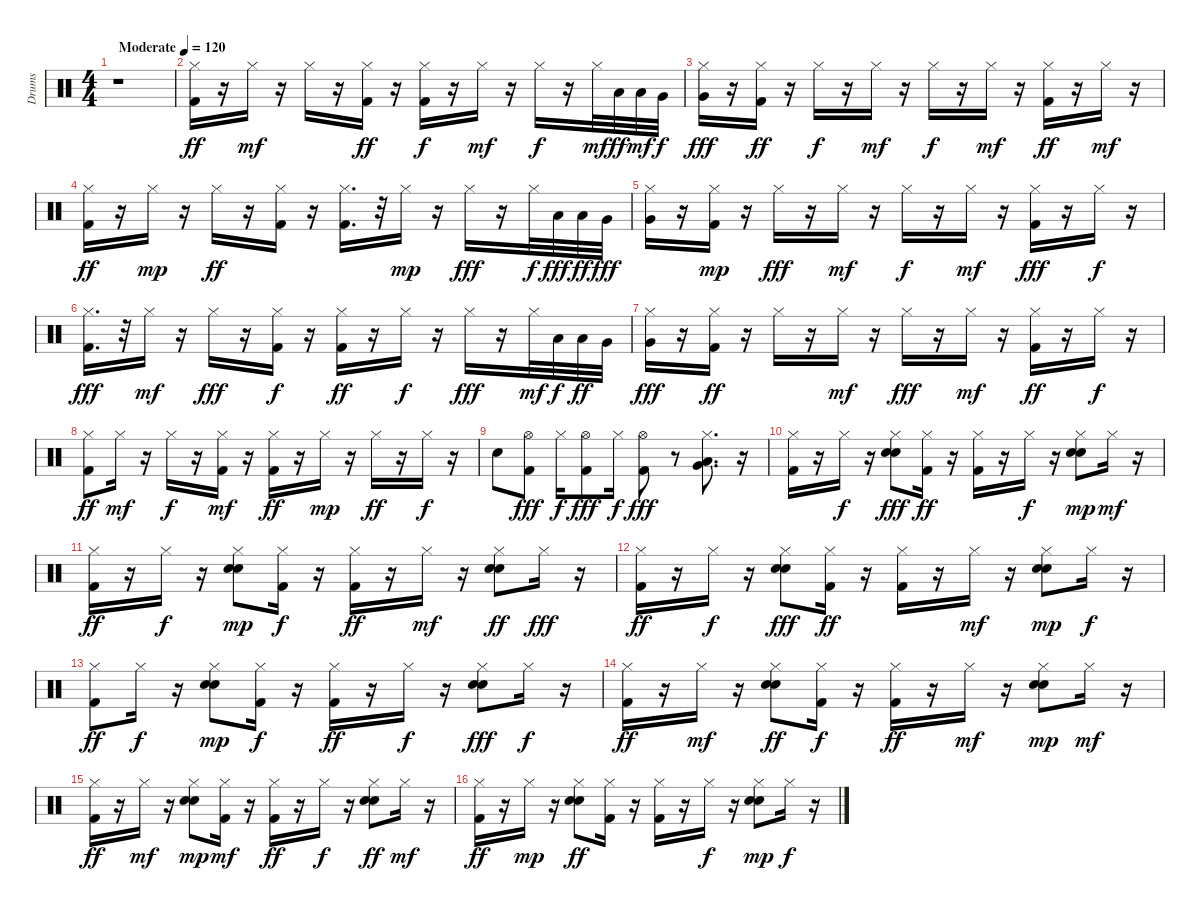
\track ("Drums" "Drums") {instrument percussion}
\staff {score}
\articulation defaults
\ts (4 4)
\tempo (120 "Moderate")
\clef neutral
\ks c
r.1{dy ff} |
("Kick (hit) 2" "Hi-Hat (closed)").16 r.16 "Hi-Hat (closed)".16{dy mf} r.16 "Hi-Hat (closed)".16 r.16 ("Hi-Hat (closed)" "Kick (hit) 2").16{dy ff} r.16 ("Kick (hit) 2" "Hi-Hat (closed)").16{dy f} r.16 "Hi-Hat (closed)".16{dy mf} r.16 "Hi-Hat (closed)".16{dy f} r.16 "Hi-Hat (closed)".32{dy mf} "Low Tom (hit)".32{dy ff} "Low Tom (hit)".32{dy mf} "Very Low Tom (hit)".32{dy f} |
("Very Low Tom (hit)" "Hi-Hat (closed)").16{dy fff} r.16 ("Kick (hit) 2" "Hi-Hat (closed)").16{dy ff} r.16 "Hi-Hat (closed)".16{dy f} r.16 "Hi-Hat (closed)".16{dy mf} r.16 "Hi-Hat (closed)".16{dy f} r.16 "Hi-Hat (closed)".16{dy mf} r.16 ("Kick (hit) 2" "Hi-Hat (closed)").16{dy ff} r.16 "Hi-Hat (closed)".16{dy mf} r.16 |
("Hi-Hat (closed)" "Kick (hit) 2").16{dy ff} r.16 "Hi-Hat (closed)".16{dy mp} r.16 "Hi-Hat (closed)".16{dy ff} r.16 ("Hi-Hat (closed)" "Kick (hit) 2").16 r.16 ("Hi-Hat (closed)" "Kick (hit) 2").16{d} r.32 "Hi-Hat (closed)".16{dy mp} r.16 "Hi-Hat (closed)".16{dy fff} r.16 "Hi-Hat (closed)".32{dy f} "Low Tom (hit)".32{dy fff} "Low Tom (hit)".32{dy ff} "Very Low Tom (hit)".32{dy fff} |
("Very Low Tom (hit)" "Hi-Hat (closed)").16 r.16 ("Kick (hit) 2" "Hi-Hat (closed)").16{dy mp} r.16 "Hi-Hat (closed)".16{dy fff} r.16 "Hi-Hat (closed)".16{dy mf} r.16 "Hi-Hat (closed)".16{dy f} r.16 "Hi-Hat (closed)".16{dy mf} r.16 ("Kick (hit) 2" "Hi-Hat (closed)").16{dy fff} r.16 "Hi-Hat (closed)".16{dy f} r.16 |
("Kick (hit) 2" "Hi-Hat (closed)").16{d dy fff} r.32 "Hi-Hat (closed)".16{dy mf} r.16 "Hi-Hat (closed)".16{dy fff} r.16 ("Kick (hit) 2" "Hi-Hat (closed)").16{dy f} r.16 ("Kick (hit) 2" "Hi-Hat (closed)").16{dy ff} r.16 "Hi-Hat (closed)".16{dy f} r.16 "Hi-Hat (closed)".16{dy fff} r.16 "Hi-Hat (closed)".32{dy mf} "Low Tom (hit)".32{dy f} "Low Tom (hit)".32{dy ff} "Very Low Tom (hit)".32 |
("Very Low Tom (hit)" "Hi-Hat (closed)").16{dy fff} r.16 ("Hi-Hat (closed)" "Kick (hit) 2").16{dy ff} r.16 "Hi-Hat (closed)".16 r.16 "Hi-Hat (closed)".16{dy mf} r.16 "Hi-Hat (closed)".16{dy fff} r.16 "Hi-Hat (closed)".16{dy mf} r.16 ("Kick (hit) 2" "Hi-Hat (closed)").16{dy ff} r.16 "Hi-Hat (closed)".16{dy f} r.16 |
("Hi-Hat (closed)" "Kick (hit) 2").8{dy ff} "Hi-Hat (closed)".16{dy mf} r.16 "Hi-Hat (closed)".16{dy f} r.16 ("Kick (hit) 2" "Hi-Hat (closed)").16{dy mf} r.16 ("Hi-Hat (closed)" "Kick (hit) 2").16{dy ff} r.16 "Hi-Hat (closed)".16{dy mp} r.16 "Hi-Hat (closed)".16{dy ff} r.16 "Hi-Hat (closed)".16{dy f} r.16 |
"Electric Snare (hit)".8 ("Kick (hit) 2" "Hi-Hat (open)").8{dy fff} "Hi-Hat (closed)".16{dy f} ("Kick (hit) 2" "Hi-Hat (open)").8{dy fff} "Hi-Hat (closed)".16{dy f} ("Hi-Hat (open)" "Kick (hit) 2").8{dy fff} r.8 ("Low Floor Tom (hit)" "Hi-Hat (closed)" "Very Low Tom (hit)").8{d} r.16 |
("Kick (hit) 2" "Hi-Hat (closed)").16 r.16 "Hi-Hat (closed)".16{dy f} r.16 ("Hand Clap (hit)" "Electric Snare (hit)" "Hi-Hat (closed)").8{dy fff} ("Hi-Hat (closed)" "Kick (hit) 2").16{dy ff} r.16 ("Hi-Hat (closed)" "Kick (hit) 2").16 r.16 "Hi-Hat (closed)".16{dy f} r.16 ("Hi-Hat (closed)" "Hand Clap (hit)" "Electric Snare (hit)").8{dy mp} "Hi-Hat (closed)".16{dy mf} r.16 |
("Hi-Hat (closed)" "Kick (hit) 2").16{dy ff} r.16 "Hi-Hat (closed)".16{dy f} r.16 ("Hi-Hat (closed)" "Hand Clap (hit)" "Electric Snare (hit)").8{dy mp} ("Hi-Hat (closed)" "Kick (hit) 2").16{dy f} r.16 ("Hi-Hat (closed)" "Kick (hit) 2").16{dy ff} r.16 "Hi-Hat (closed)".16{dy mf} r.16 ("Electric Snare (hit)" "Hi-Hat (closed)" "Hand Clap (hit)").8{dy ff} "Hi-Hat (closed)".16{dy fff} r.16 |
("Kick (hit) 2" "Hi-Hat (closed)").16{dy ff} r.16 "Hi-Hat (closed)".16{dy f} r.16 ("Hand Clap (hit)" "Electric Snare (hit)" "Hi-Hat (closed)").8{dy fff} ("Hi-Hat (closed)" "Kick (hit) 2").16{dy ff} r.16 ("Hi-Hat (closed)" "Kick (hit) 2").16 r.16 "Hi-Hat (closed)".16{dy mf} r.16 ("Hand Clap (hit)" "Hi-Hat (closed)" "Electric Snare (hit)").8{dy mp} "Hi-Hat (closed)".16{dy f} r.16 |
("Kick (hit) 2" "Hi-Hat (closed)").8{dy ff} "Hi-Hat (closed)".16{dy f} r.16 ("Hand Clap (hit)" "Hi-Hat (closed)" "Electric Snare (hit)").8{dy mp} ("Kick (hit) 2" "Hi-Hat (closed)").16{dy f} r.16 ("Kick (hit) 2" "Hi-Hat (closed)").16{dy ff} r.16 "Hi-Hat (closed)".16{dy f} r.16 ("Electric Snare (hit)" "Hand Clap (hit)" "Hi-Hat (closed)").8{dy fff} "Hi-Hat (closed)".16{dy f} r.16 |
("Hi-Hat (closed)" "Kick (hit) 2").16{dy ff} r.16 "Hi-Hat (closed)".16{dy mf} r.16 ("Electric Snare (hit)" "Hi-Hat (closed)" "Hand Clap (hit)").8{dy ff} ("Kick (hit) 2" "Hi-Hat (closed)").16{dy f} r.16 ("Kick (hit) 2" "Hi-Hat (closed)").16{dy ff} r.16 "Hi-Hat (closed)".16{dy mf} r.16 ("Hi-Hat (closed)" "Hand Clap (hit)" "Electric Snare (hit)").8{dy mp} "Hi-Hat (closed)".16{dy mf} r.16 |
("Hi-Hat (closed)" "Kick (hit) 2").16{dy ff} r.16 "Hi-Hat (closed)".16{dy mf} r.16 ("Hand Clap (hit)" "Hi-Hat (closed)" "Electric Snare (hit)").8{dy mp} ("Hi-Hat (closed)" "Kick (hit) 2").16{dy mf} r.16 ("Hi-Hat (closed)" "Kick (hit) 2").16{dy ff} r.16 "Hi-Hat (closed)".16{dy f} r.16 ("Hi-Hat (closed)" "Electric Snare (hit)" "Hand Clap (hit)").8{dy ff} "Hi-Hat (closed)".16{dy mf} r.16 |
("Hi-Hat (closed)" "Kick (hit) 2").16{dy ff} r.16 "Hi-Hat (closed)".16{dy mp} r.16 ("Electric Snare (hit)" "Hi-Hat (closed)" "Hand Clap (hit)").8{dy ff} ("Kick (hit) 2" "Hi-Hat (closed)").16 r.16 ("Kick (hit) 2" "Hi-Hat (closed)").16 r.16 "Hi-Hat (closed)".16{dy f} r.16 ("Hand Clap (hit)" "Hi-Hat (closed)" "Electric Snare (hit)").8{dy mp} "Hi-Hat (closed)".16{dy f} r.16
